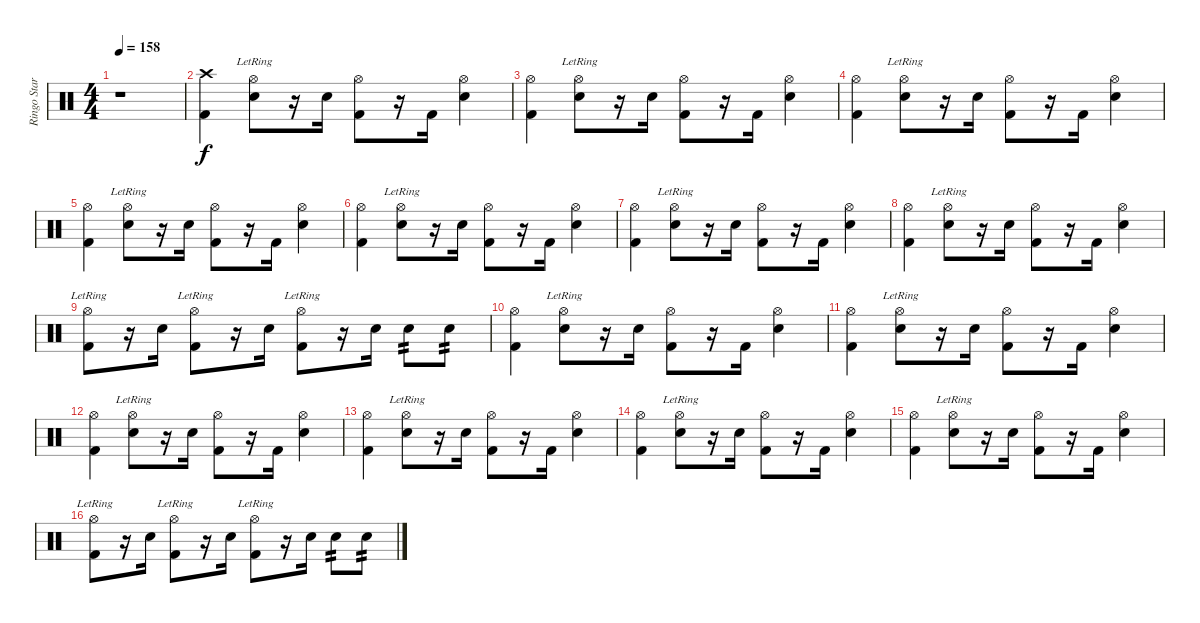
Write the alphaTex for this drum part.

\track ("Ringo Star" "Ringo Star") {instrument percussion}
\staff {score}
\articulation defaults
\ts (4 4)
\tempo 158
\clef neutral
\ks c
r.1{dy f} |
("Crash high (hit)" "Kick (hit) 2").4 ("Hi-Hat (open)"{lr} "Snare (hit) 2").8 r.16 "Snare (hit) 2".16 ("Hi-Hat (open)" "Kick (hit) 2").8 r.16 "Kick (hit) 2".16 ("Hi-Hat (open)" "Snare (hit) 2").4 |
("Hi-Hat (open)" "Kick (hit) 2").4 ("Hi-Hat (open)"{lr} "Snare (hit) 2").8 r.16 "Snare (hit) 2".16 ("Hi-Hat (open)" "Kick (hit) 2").8 r.16 "Kick (hit) 2".16 ("Hi-Hat (open)" "Snare (hit) 2").4 |
("Hi-Hat (open)" "Kick (hit) 2").4 ("Hi-Hat (open)"{lr} "Snare (hit) 2").8 r.16 "Snare (hit) 2".16 ("Hi-Hat (open)" "Kick (hit) 2").8 r.16 "Kick (hit) 2".16 ("Hi-Hat (open)" "Snare (hit) 2").4 |
("Hi-Hat (open)" "Kick (hit) 2").4 ("Hi-Hat (open)"{lr} "Snare (hit) 2").8 r.16 "Snare (hit) 2".16 ("Hi-Hat (open)" "Kick (hit) 2").8 r.16 "Kick (hit) 2".16 ("Hi-Hat (open)" "Snare (hit) 2").4 |
("Hi-Hat (open)" "Kick (hit) 2").4 ("Hi-Hat (open)"{lr} "Snare (hit) 2").8 r.16 "Snare (hit) 2".16 ("Hi-Hat (open)" "Kick (hit) 2").8 r.16 "Kick (hit) 2".16 ("Hi-Hat (open)" "Snare (hit) 2").4 |
("Hi-Hat (open)" "Kick (hit) 2").4 ("Hi-Hat (open)"{lr} "Snare (hit) 2").8 r.16 "Snare (hit) 2".16 ("Hi-Hat (open)" "Kick (hit) 2").8 r.16 "Kick (hit) 2".16 ("Hi-Hat (open)" "Snare (hit) 2").4 |
("Hi-Hat (open)" "Kick (hit) 2").4 ("Hi-Hat (open)"{lr} "Snare (hit) 2").8 r.16 "Snare (hit) 2".16 ("Hi-Hat (open)" "Kick (hit) 2").8 r.16 "Kick (hit) 2".16 ("Hi-Hat (open)" "Snare (hit) 2").4 |
("Hi-Hat (open)"{lr} "Kick (hit) 2").8 r.16 "Snare (hit) 2".16 ("Hi-Hat (open)"{lr} "Kick (hit) 2").8 r.16 "Snare (hit) 2".16 ("Hi-Hat (open)"{lr} "Kick (hit) 2").8 r.16 "Snare (hit) 2".16 "Snare (hit) 2".8{tp 2} "Snare (hit) 2".8{tp 2} |
("Hi-Hat (open)" "Kick (hit) 2").4 ("Hi-Hat (open)"{lr} "Snare (hit) 2").8 r.16 "Snare (hit) 2".16 ("Hi-Hat (open)" "Kick (hit) 2").8 r.16 "Kick (hit) 2".16 ("Hi-Hat (open)" "Snare (hit) 2").4 |
("Hi-Hat (open)" "Kick (hit) 2").4 ("Hi-Hat (open)"{lr} "Snare (hit) 2").8 r.16 "Snare (hit) 2".16 ("Hi-Hat (open)" "Kick (hit) 2").8 r.16 "Kick (hit) 2".16 ("Hi-Hat (open)" "Snare (hit) 2").4 |
("Hi-Hat (open)" "Kick (hit) 2").4 ("Hi-Hat (open)"{lr} "Snare (hit) 2").8 r.16 "Snare (hit) 2".16 ("Hi-Hat (open)" "Kick (hit) 2").8 r.16 "Kick (hit) 2".16 ("Hi-Hat (open)" "Snare (hit) 2").4 |
("Hi-Hat (open)" "Kick (hit) 2").4 ("Hi-Hat (open)"{lr} "Snare (hit) 2").8 r.16 "Snare (hit) 2".16 ("Hi-Hat (open)" "Kick (hit) 2").8 r.16 "Kick (hit) 2".16 ("Hi-Hat (open)" "Snare (hit) 2").4 |
("Hi-Hat (open)" "Kick (hit) 2").4 ("Hi-Hat (open)"{lr} "Snare (hit) 2").8 r.16 "Snare (hit) 2".16 ("Hi-Hat (open)" "Kick (hit) 2").8 r.16 "Kick (hit) 2".16 ("Hi-Hat (open)" "Snare (hit) 2").4 |
("Hi-Hat (open)" "Kick (hit) 2").4 ("Hi-Hat (open)"{lr} "Snare (hit) 2").8 r.16 "Snare (hit) 2".16 ("Hi-Hat (open)" "Kick (hit) 2").8 r.16 "Kick (hit) 2".16 ("Hi-Hat (open)" "Snare (hit) 2").4 |
("Hi-Hat (open)"{lr} "Kick (hit) 2").8 r.16 "Snare (hit) 2".16 ("Hi-Hat (open)"{lr} "Kick (hit) 2").8 r.16 "Snare (hit) 2".16 ("Hi-Hat (open)"{lr} "Kick (hit) 2").8 r.16 "Snare (hit) 2".16 "Snare (hit) 2".8{tp 2} "Snare (hit) 2".8{tp 2}
